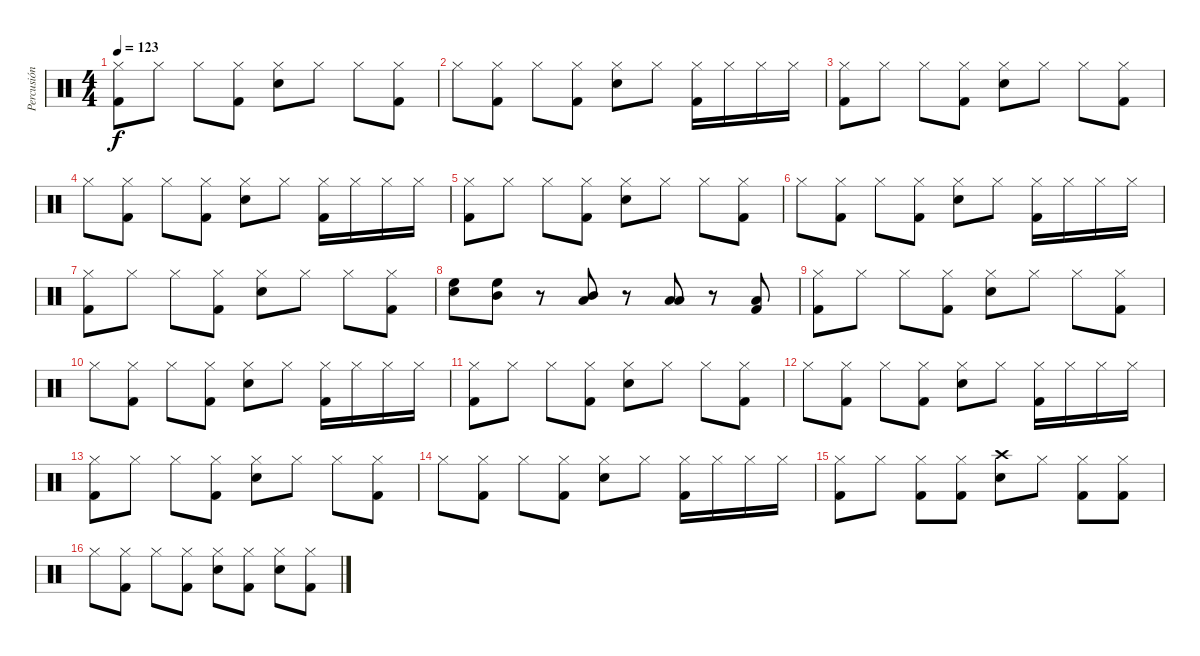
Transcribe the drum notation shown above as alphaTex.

\track ("Percusión" "Percusión") {instrument percussion}
\staff {score}
\articulation defaults
\ts (4 4)
\tempo 123
\clef neutral
\ks c
("Hi-Hat (closed)" "Kick (hit) 2").8{dy f} "Hi-Hat (closed)".8 "Hi-Hat (closed)".8 ("Hi-Hat (closed)" "Kick (hit) 2").8 ("Hi-Hat (closed)" "Snare (hit) 2").8 "Hi-Hat (closed)".8 "Hi-Hat (closed)".8 ("Hi-Hat (closed)" "Kick (hit) 2").8 |
"Hi-Hat (closed)".8 ("Hi-Hat (closed)" "Kick (hit) 2").8 "Hi-Hat (closed)".8 ("Hi-Hat (closed)" "Kick (hit) 2").8 ("Hi-Hat (closed)" "Snare (hit) 2").8 "Hi-Hat (closed)".8 ("Hi-Hat (closed)" "Kick (hit) 2").16 "Hi-Hat (closed)".16 "Hi-Hat (closed)".16 "Hi-Hat (closed)".16 |
("Hi-Hat (closed)" "Kick (hit) 2").8 "Hi-Hat (closed)".8 "Hi-Hat (closed)".8 ("Hi-Hat (closed)" "Kick (hit) 2").8 ("Hi-Hat (closed)" "Snare (hit) 2").8 "Hi-Hat (closed)".8 "Hi-Hat (closed)".8 ("Hi-Hat (closed)" "Kick (hit) 2").8 |
"Hi-Hat (closed)".8 ("Hi-Hat (closed)" "Kick (hit) 2").8 "Hi-Hat (closed)".8 ("Hi-Hat (closed)" "Kick (hit) 2").8 ("Hi-Hat (closed)" "Snare (hit) 2").8 "Hi-Hat (closed)".8 ("Hi-Hat (closed)" "Kick (hit) 2").16 "Hi-Hat (closed)".16 "Hi-Hat (closed)".16 "Hi-Hat (closed)".16 |
("Hi-Hat (closed)" "Kick (hit) 2").8 "Hi-Hat (closed)".8 "Hi-Hat (closed)".8 ("Hi-Hat (closed)" "Kick (hit) 2").8 ("Hi-Hat (closed)" "Snare (hit) 2").8 "Hi-Hat (closed)".8 "Hi-Hat (closed)".8 ("Hi-Hat (closed)" "Kick (hit) 2").8 |
"Hi-Hat (closed)".8 ("Hi-Hat (closed)" "Kick (hit) 2").8 "Hi-Hat (closed)".8 ("Hi-Hat (closed)" "Kick (hit) 2").8 ("Hi-Hat (closed)" "Snare (hit) 2").8 "Hi-Hat (closed)".8 ("Hi-Hat (closed)" "Kick (hit) 2").16 "Hi-Hat (closed)".16 "Hi-Hat (closed)".16 "Hi-Hat (closed)".16 |
("Hi-Hat (closed)" "Kick (hit) 2").8 "Hi-Hat (closed)".8 "Hi-Hat (closed)".8 ("Hi-Hat (closed)" "Kick (hit) 2").8 ("Hi-Hat (closed)" "Snare (hit) 2").8 "Hi-Hat (closed)".8 "Hi-Hat (closed)".8 ("Hi-Hat (closed)" "Kick (hit) 2").8 |
("Snare (hit) 2" "High Floor Tom (hit)").8 ("High Floor Tom (hit)" "Mid Tom (hit)").8 r.8 ("Mid Tom (hit)" "Low Tom (hit)").8 r.8 ("Low Tom (hit)" "Low Floor Tom (hit)").8 r.8 ("Low Floor Tom (hit)" "Kick (hit) 2").8 |
("Hi-Hat (closed)" "Kick (hit) 2").8 "Hi-Hat (closed)".8 "Hi-Hat (closed)".8 ("Hi-Hat (closed)" "Kick (hit) 2").8 ("Hi-Hat (closed)" "Snare (hit) 2").8 "Hi-Hat (closed)".8 "Hi-Hat (closed)".8 ("Hi-Hat (closed)" "Kick (hit) 2").8 |
"Hi-Hat (closed)".8 ("Hi-Hat (closed)" "Kick (hit) 2").8 "Hi-Hat (closed)".8 ("Hi-Hat (closed)" "Kick (hit) 2").8 ("Hi-Hat (closed)" "Snare (hit) 2").8 "Hi-Hat (closed)".8 ("Hi-Hat (closed)" "Kick (hit) 2").16 "Hi-Hat (closed)".16 "Hi-Hat (closed)".16 "Hi-Hat (closed)".16 |
("Hi-Hat (closed)" "Kick (hit) 2").8 "Hi-Hat (closed)".8 "Hi-Hat (closed)".8 ("Hi-Hat (closed)" "Kick (hit) 2").8 ("Hi-Hat (closed)" "Snare (hit) 2").8 "Hi-Hat (closed)".8 "Hi-Hat (closed)".8 ("Hi-Hat (closed)" "Kick (hit) 2").8 |
"Hi-Hat (closed)".8 ("Hi-Hat (closed)" "Kick (hit) 2").8 "Hi-Hat (closed)".8 ("Hi-Hat (closed)" "Kick (hit) 2").8 ("Hi-Hat (closed)" "Snare (hit) 2").8 "Hi-Hat (closed)".8 ("Hi-Hat (closed)" "Kick (hit) 2").16 "Hi-Hat (closed)".16 "Hi-Hat (closed)".16 "Hi-Hat (closed)".16 |
("Hi-Hat (closed)" "Kick (hit) 2").8 "Hi-Hat (closed)".8 "Hi-Hat (closed)".8 ("Hi-Hat (closed)" "Kick (hit) 2").8 ("Hi-Hat (closed)" "Snare (hit) 2").8 "Hi-Hat (closed)".8 "Hi-Hat (closed)".8 ("Hi-Hat (closed)" "Kick (hit) 2").8 |
"Hi-Hat (closed)".8 ("Hi-Hat (closed)" "Kick (hit) 2").8 "Hi-Hat (closed)".8 ("Hi-Hat (closed)" "Kick (hit) 2").8 ("Hi-Hat (closed)" "Snare (hit) 2").8 "Hi-Hat (closed)".8 ("Hi-Hat (closed)" "Kick (hit) 2").16 "Hi-Hat (closed)".16 "Hi-Hat (closed)".16 "Hi-Hat (closed)".16 |
("Hi-Hat (closed)" "Kick (hit) 2").8 "Hi-Hat (closed)".8 ("Hi-Hat (closed)" "Kick (hit) 2").8 ("Hi-Hat (closed)" "Kick (hit) 2").8 ("Crash high (hit)" "Snare (hit) 2").8 "Hi-Hat (closed)".8 ("Hi-Hat (closed)" "Kick (hit) 2").8 ("Hi-Hat (closed)" "Kick (hit) 2").8 |
"Hi-Hat (closed)".8 ("Hi-Hat (closed)" "Kick (hit) 2").8 "Hi-Hat (closed)".8 ("Hi-Hat (closed)" "Kick (hit) 2").8 ("Hi-Hat (closed)" "Snare (hit) 2").8 ("Hi-Hat (closed)" "Kick (hit) 2").8 ("Hi-Hat (closed)" "Snare (hit) 2").8 ("Hi-Hat (closed)" "Kick (hit) 2").8
